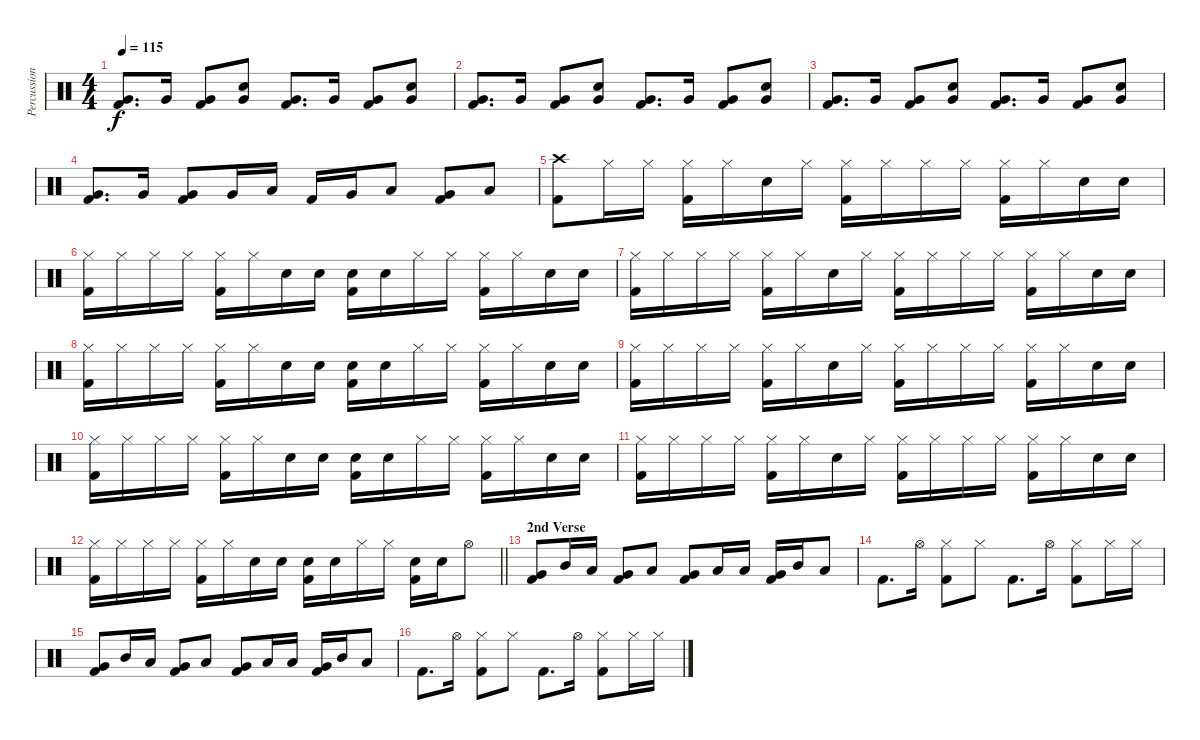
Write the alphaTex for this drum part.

\track ("Percussion" "Percussion") {instrument percussion}
\staff {score}
\articulation defaults
\ts (4 4)
\tempo 115
\clef neutral
\ks c
("Very Low Tom (hit)" "Kick (hit) 2").8{d dy f} "Very Low Tom (hit)".16 ("Very Low Tom (hit)" "Kick (hit) 2").8 ("Very Low Tom (hit)" "Snare (hit) 2").8 ("Very Low Tom (hit)" "Kick (hit) 2").8{d} "Very Low Tom (hit)".16 ("Very Low Tom (hit)" "Kick (hit) 2").8 ("Very Low Tom (hit)" "Snare (hit) 2").8 |
("Very Low Tom (hit)" "Kick (hit) 2").8{d} "Very Low Tom (hit)".16 ("Very Low Tom (hit)" "Kick (hit) 2").8 ("Very Low Tom (hit)" "Snare (hit) 2").8 ("Very Low Tom (hit)" "Kick (hit) 2").8{d} "Very Low Tom (hit)".16 ("Very Low Tom (hit)" "Kick (hit) 2").8 ("Very Low Tom (hit)" "Snare (hit) 2").8 |
("Very Low Tom (hit)" "Kick (hit) 2").8{d} "Very Low Tom (hit)".16 ("Very Low Tom (hit)" "Kick (hit) 2").8 ("Very Low Tom (hit)" "Snare (hit) 2").8 ("Very Low Tom (hit)" "Kick (hit) 2").8{d} "Very Low Tom (hit)".16 ("Very Low Tom (hit)" "Kick (hit) 2").8 ("Very Low Tom (hit)" "Snare (hit) 2").8 |
("Very Low Tom (hit)" "Kick (hit) 2").8{d} "Very Low Tom (hit)".16 ("Very Low Tom (hit)" "Kick (hit) 2").8 "Very Low Tom (hit)".16 "Low Floor Tom (hit)".16 "Kick (hit) 2".16 "Very Low Tom (hit)".16 "Low Floor Tom (hit)".8 ("Very Low Tom (hit)" "Kick (hit) 2").8 "Low Floor Tom (hit)".8 |
("Crash high (hit)" "Kick (hit) 2").8 "Hi-Hat (closed)".16 "Hi-Hat (closed)".16 ("Hi-Hat (closed)" "Kick (hit) 2").16 "Hi-Hat (closed)".16 "Snare (hit) 2".16 "Hi-Hat (closed)".16 ("Hi-Hat (closed)" "Kick (hit) 2").16 "Hi-Hat (closed)".16 "Hi-Hat (closed)".16 "Hi-Hat (closed)".16 ("Hi-Hat (closed)" "Kick (hit) 2").16 "Hi-Hat (closed)".16 "Snare (hit) 2".16 "Snare (hit) 2".16 |
("Hi-Hat (closed)" "Kick (hit) 2").16 "Hi-Hat (closed)".16 "Hi-Hat (closed)".16 "Hi-Hat (closed)".16 ("Hi-Hat (closed)" "Kick (hit) 2").16 "Hi-Hat (closed)".16 "Snare (hit) 2".16 "Snare (hit) 2".16 ("Snare (hit) 2" "Kick (hit) 2").16 "Snare (hit) 2".16 "Hi-Hat (closed)".16 "Hi-Hat (closed)".16 ("Hi-Hat (closed)" "Kick (hit) 2").16 "Hi-Hat (closed)".16 "Snare (hit) 2".16 "Snare (hit) 2".16 |
("Hi-Hat (closed)" "Kick (hit) 2").16 "Hi-Hat (closed)".16 "Hi-Hat (closed)".16 "Hi-Hat (closed)".16 ("Hi-Hat (closed)" "Kick (hit) 2").16 "Hi-Hat (closed)".16 "Snare (hit) 2".16 "Hi-Hat (closed)".16 ("Hi-Hat (closed)" "Kick (hit) 2").16 "Hi-Hat (closed)".16 "Hi-Hat (closed)".16 "Hi-Hat (closed)".16 ("Hi-Hat (closed)" "Kick (hit) 2").16 "Hi-Hat (closed)".16 "Snare (hit) 2".16 "Snare (hit) 2".16 |
("Hi-Hat (closed)" "Kick (hit) 2").16 "Hi-Hat (closed)".16 "Hi-Hat (closed)".16 "Hi-Hat (closed)".16 ("Hi-Hat (closed)" "Kick (hit) 2").16 "Hi-Hat (closed)".16 "Snare (hit) 2".16 "Snare (hit) 2".16 ("Snare (hit) 2" "Kick (hit) 2").16 "Snare (hit) 2".16 "Hi-Hat (closed)".16 "Hi-Hat (closed)".16 ("Hi-Hat (closed)" "Kick (hit) 2").16 "Hi-Hat (closed)".16 "Snare (hit) 2".16 "Snare (hit) 2".16 |
("Hi-Hat (closed)" "Kick (hit) 2").16 "Hi-Hat (closed)".16 "Hi-Hat (closed)".16 "Hi-Hat (closed)".16 ("Hi-Hat (closed)" "Kick (hit) 2").16 "Hi-Hat (closed)".16 "Snare (hit) 2".16 "Hi-Hat (closed)".16 ("Hi-Hat (closed)" "Kick (hit) 2").16 "Hi-Hat (closed)".16 "Hi-Hat (closed)".16 "Hi-Hat (closed)".16 ("Hi-Hat (closed)" "Kick (hit) 2").16 "Hi-Hat (closed)".16 "Snare (hit) 2".16 "Snare (hit) 2".16 |
("Hi-Hat (closed)" "Kick (hit) 2").16 "Hi-Hat (closed)".16 "Hi-Hat (closed)".16 "Hi-Hat (closed)".16 ("Hi-Hat (closed)" "Kick (hit) 2").16 "Hi-Hat (closed)".16 "Snare (hit) 2".16 "Snare (hit) 2".16 ("Snare (hit) 2" "Kick (hit) 2").16 "Snare (hit) 2".16 "Hi-Hat (closed)".16 "Hi-Hat (closed)".16 ("Hi-Hat (closed)" "Kick (hit) 2").16 "Hi-Hat (closed)".16 "Snare (hit) 2".16 "Snare (hit) 2".16 |
("Hi-Hat (closed)" "Kick (hit) 2").16 "Hi-Hat (closed)".16 "Hi-Hat (closed)".16 "Hi-Hat (closed)".16 ("Hi-Hat (closed)" "Kick (hit) 2").16 "Hi-Hat (closed)".16 "Snare (hit) 2".16 "Hi-Hat (closed)".16 ("Hi-Hat (closed)" "Kick (hit) 2").16 "Hi-Hat (closed)".16 "Hi-Hat (closed)".16 "Hi-Hat (closed)".16 ("Hi-Hat (closed)" "Kick (hit) 2").16 "Hi-Hat (closed)".16 "Snare (hit) 2".16 "Snare (hit) 2".16 |
\barLineRight lightlight
("Hi-Hat (closed)" "Kick (hit) 2").16 "Hi-Hat (closed)".16 "Hi-Hat (closed)".16 "Hi-Hat (closed)".16 ("Hi-Hat (closed)" "Kick (hit) 2").16 "Hi-Hat (closed)".16 "Snare (hit) 2".16 "Snare (hit) 2".16 ("Snare (hit) 2" "Kick (hit) 2").16 "Snare (hit) 2".16 "Hi-Hat (closed)".16 "Hi-Hat (closed)".16 ("Snare (hit) 2" "Kick (hit) 2").16 "Snare (hit) 2".16 "Hi-Hat (open)".8 |
\section ("" "2nd Verse")
("Very Low Tom (hit)" "Kick (hit) 2").8 "Mid Tom (hit)".16 "Low Tom (hit)".16 ("Very Low Tom (hit)" "Kick (hit) 2").8 "Low Tom (hit)".8 ("Very Low Tom (hit)" "Kick (hit) 2").8 "Low Tom (hit)".16 "Low Tom (hit)".16 ("Very Low Tom (hit)" "Kick (hit) 2").16 "Mid Tom (hit)".16 "Low Tom (hit)".8 |
"Kick (hit) 2".8{d} "Hi-Hat (open)".16 ("Hi-Hat (closed)" "Kick (hit) 2").8 "Hi-Hat (closed)".8 "Kick (hit) 2".8{d} "Hi-Hat (open)".16 ("Hi-Hat (closed)" "Kick (hit) 2").8 "Hi-Hat (closed)".16 "Hi-Hat (closed)".16 |
("Very Low Tom (hit)" "Kick (hit) 2").8 "Mid Tom (hit)".16 "Low Tom (hit)".16 ("Very Low Tom (hit)" "Kick (hit) 2").8 "Low Tom (hit)".8 ("Very Low Tom (hit)" "Kick (hit) 2").8 "Low Tom (hit)".16 "Low Tom (hit)".16 ("Very Low Tom (hit)" "Kick (hit) 2").16 "Mid Tom (hit)".16 "Low Tom (hit)".8 |
"Kick (hit) 2".8{d} "Hi-Hat (open)".16 ("Hi-Hat (closed)" "Kick (hit) 2").8 "Hi-Hat (closed)".8 "Kick (hit) 2".8{d} "Hi-Hat (open)".16 ("Hi-Hat (closed)" "Kick (hit) 2").8 "Hi-Hat (closed)".16 "Hi-Hat (closed)".16
